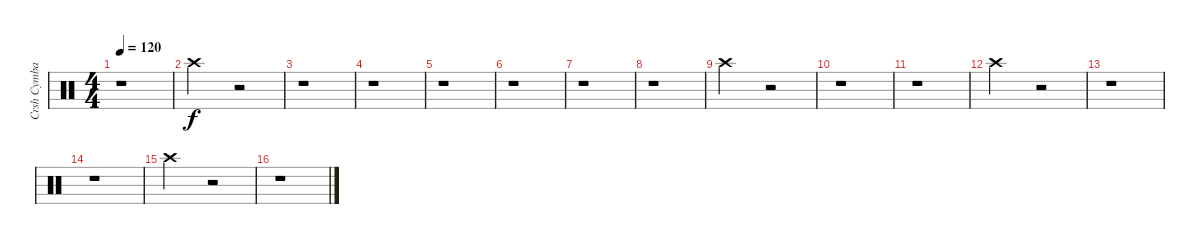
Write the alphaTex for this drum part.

\track ("Crsh Cymbal         " "Crsh Cymba") {instrument percussion}
\staff {score}
\articulation defaults
\ts (4 4)
\tempo 120
\clef neutral
\ks c
r.1{dy f} |
"Crash high (hit)".2 r.2 |
r.1 |
r.1 |
r.1 |
r.1 |
r.1 |
r.1 |
"Crash high (hit)".2 r.2 |
r.1 |
r.1 |
"Crash high (hit)".2 r.2 |
r.1 |
r.1 |
"Crash high (hit)".2 r.2 |
r.1
